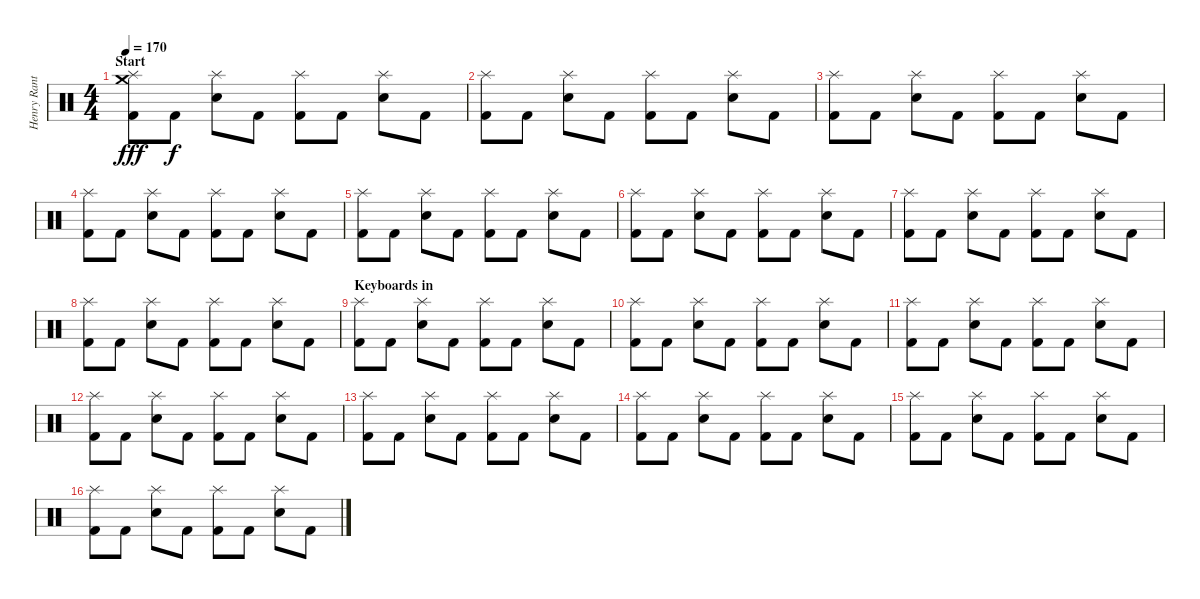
\track ("Henry Ranta -Drums-" "Henry Rant") {instrument percussion}
\staff {score}
\articulation defaults
\ts (4 4)
\section ("" "Start")
\tempo 170
\clef neutral
\ks c
("Splash (hit)" "Crash medium (hit)" "Kick (hit) 2").8{dy fff} "Kick (hit) 2".8{dy f} ("Splash (hit)" "Snare (hit) 2").8 "Kick (hit) 2".8 ("Splash (hit)" "Kick (hit) 2").8 "Kick (hit) 2".8 ("Splash (hit)" "Snare (hit) 2").8 "Kick (hit) 2".8 |
("Splash (hit)" "Kick (hit) 2").8 "Kick (hit) 2".8 ("Splash (hit)" "Snare (hit) 2").8 "Kick (hit) 2".8 ("Splash (hit)" "Kick (hit) 2").8 "Kick (hit) 2".8 ("Splash (hit)" "Snare (hit) 2").8 "Kick (hit) 2".8 |
("Splash (hit)" "Kick (hit) 2").8 "Kick (hit) 2".8 ("Splash (hit)" "Snare (hit) 2").8 "Kick (hit) 2".8 ("Splash (hit)" "Kick (hit) 2").8 "Kick (hit) 2".8 ("Splash (hit)" "Snare (hit) 2").8 "Kick (hit) 2".8 |
("Splash (hit)" "Kick (hit) 2").8 "Kick (hit) 2".8 ("Splash (hit)" "Snare (hit) 2").8 "Kick (hit) 2".8 ("Splash (hit)" "Kick (hit) 2").8 "Kick (hit) 2".8 ("Splash (hit)" "Snare (hit) 2").8 "Kick (hit) 2".8 |
("Splash (hit)" "Kick (hit) 2").8 "Kick (hit) 2".8 ("Splash (hit)" "Snare (hit) 2").8 "Kick (hit) 2".8 ("Splash (hit)" "Kick (hit) 2").8 "Kick (hit) 2".8 ("Splash (hit)" "Snare (hit) 2").8 "Kick (hit) 2".8 |
("Splash (hit)" "Kick (hit) 2").8 "Kick (hit) 2".8 ("Splash (hit)" "Snare (hit) 2").8 "Kick (hit) 2".8 ("Splash (hit)" "Kick (hit) 2").8 "Kick (hit) 2".8 ("Splash (hit)" "Snare (hit) 2").8 "Kick (hit) 2".8 |
("Splash (hit)" "Kick (hit) 2").8 "Kick (hit) 2".8 ("Splash (hit)" "Snare (hit) 2").8 "Kick (hit) 2".8 ("Splash (hit)" "Kick (hit) 2").8 "Kick (hit) 2".8 ("Splash (hit)" "Snare (hit) 2").8 "Kick (hit) 2".8 |
("Splash (hit)" "Kick (hit) 2").8 "Kick (hit) 2".8 ("Splash (hit)" "Snare (hit) 2").8 "Kick (hit) 2".8 ("Splash (hit)" "Kick (hit) 2").8 "Kick (hit) 2".8 ("Splash (hit)" "Snare (hit) 2").8 "Kick (hit) 2".8 |
\section ("" "Keyboards in")
("Splash (hit)" "Kick (hit) 2").8 "Kick (hit) 2".8 ("Splash (hit)" "Snare (hit) 2").8 "Kick (hit) 2".8 ("Splash (hit)" "Kick (hit) 2").8 "Kick (hit) 2".8 ("Splash (hit)" "Snare (hit) 2").8 "Kick (hit) 2".8 |
("Splash (hit)" "Kick (hit) 2").8 "Kick (hit) 2".8 ("Splash (hit)" "Snare (hit) 2").8 "Kick (hit) 2".8 ("Splash (hit)" "Kick (hit) 2").8 "Kick (hit) 2".8 ("Splash (hit)" "Snare (hit) 2").8 "Kick (hit) 2".8 |
("Splash (hit)" "Kick (hit) 2").8 "Kick (hit) 2".8 ("Splash (hit)" "Snare (hit) 2").8 "Kick (hit) 2".8 ("Splash (hit)" "Kick (hit) 2").8 "Kick (hit) 2".8 ("Splash (hit)" "Snare (hit) 2").8 "Kick (hit) 2".8 |
("Splash (hit)" "Kick (hit) 2").8 "Kick (hit) 2".8 ("Splash (hit)" "Snare (hit) 2").8 "Kick (hit) 2".8 ("Splash (hit)" "Kick (hit) 2").8 "Kick (hit) 2".8 ("Splash (hit)" "Snare (hit) 2").8 "Kick (hit) 2".8 |
("Splash (hit)" "Kick (hit) 2").8 "Kick (hit) 2".8 ("Splash (hit)" "Snare (hit) 2").8 "Kick (hit) 2".8 ("Splash (hit)" "Kick (hit) 2").8 "Kick (hit) 2".8 ("Splash (hit)" "Snare (hit) 2").8 "Kick (hit) 2".8 |
("Splash (hit)" "Kick (hit) 2").8 "Kick (hit) 2".8 ("Splash (hit)" "Snare (hit) 2").8 "Kick (hit) 2".8 ("Splash (hit)" "Kick (hit) 2").8 "Kick (hit) 2".8 ("Splash (hit)" "Snare (hit) 2").8 "Kick (hit) 2".8 |
("Splash (hit)" "Kick (hit) 2").8 "Kick (hit) 2".8 ("Splash (hit)" "Snare (hit) 2").8 "Kick (hit) 2".8 ("Splash (hit)" "Kick (hit) 2").8 "Kick (hit) 2".8 ("Splash (hit)" "Snare (hit) 2").8 "Kick (hit) 2".8 |
("Splash (hit)" "Kick (hit) 2").8 "Kick (hit) 2".8 ("Splash (hit)" "Snare (hit) 2").8 "Kick (hit) 2".8 ("Splash (hit)" "Kick (hit) 2").8 "Kick (hit) 2".8 ("Splash (hit)" "Snare (hit) 2").8 "Kick (hit) 2".8
